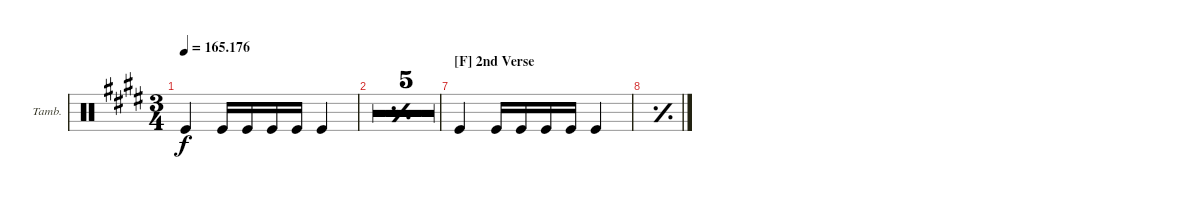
\defaultSystemsLayout 4
\bracketExtendMode groupsimilarinstruments
\firstSystemTrackNameOrientation horizontal
\otherSystemsTrackNameOrientation horizontal
\track ("Tambourine" "Tamb.") {multiBarRest instrument percussion}
\staff {score}
\articulation defaults
\ts (3 4)
\tempo
165.176
\accidentals auto
\clef neutral
\ottava regular
\simile none
\ks e "Kick (hit)".4{dy f} "Kick (hit)".16 "Kick (hit)".16 "Kick (hit)".16 "Kick (hit)".16 "Kick (hit)".4
|
\simile simple
|
\simile firstofdouble
|
\simile secondofdouble
|
\simile firstofdouble
|
\simile secondofdouble
|
\section ("F" "2nd Verse")
\simile none "Kick (hit)".4 "Kick (hit)".16 "Kick (hit)".16 "Kick (hit)".16 "Kick (hit)".16 "Kick (hit)".4
|
\simile simple
